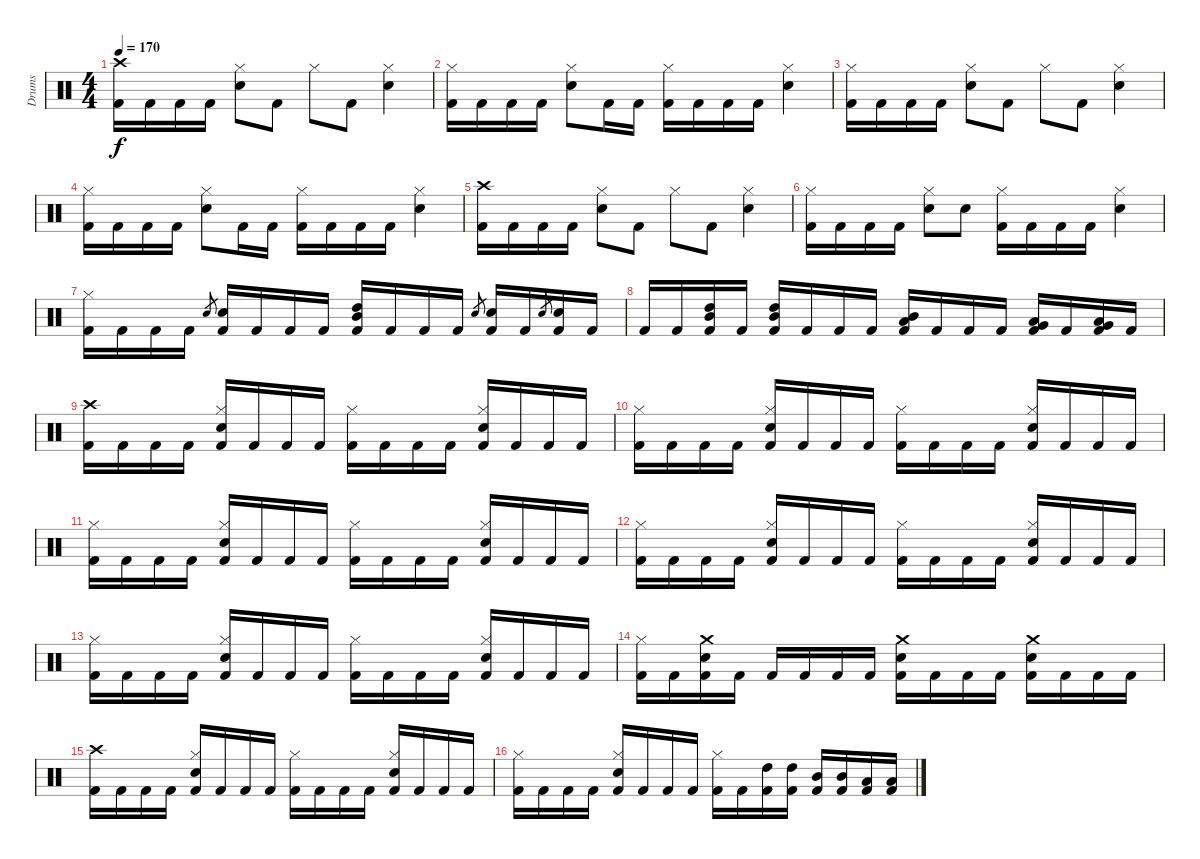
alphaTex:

\track ("Drums" "Drums") {instrument percussion}
\staff {score}
\articulation defaults
\ts (4 4)
\tempo 170
\clef neutral
\ks c
("Crash high (hit)" "Kick (hit) 2").16{dy f} "Kick (hit) 2".16 "Kick (hit) 2".16 "Kick (hit) 2".16 ("Hi-Hat (closed)" "Snare (hit) 2").8 "Kick (hit) 2".8 "Hi-Hat (closed)".8 "Kick (hit) 2".8 ("Hi-Hat (closed)" "Snare (hit) 2").4 |
("Hi-Hat (closed)" "Kick (hit) 2").16 "Kick (hit) 2".16 "Kick (hit) 2".16 "Kick (hit) 2".16 ("Hi-Hat (closed)" "Snare (hit) 2").8 "Kick (hit) 2".16 "Kick (hit) 2".16 ("Hi-Hat (closed)" "Kick (hit) 2").16 "Kick (hit) 2".16 "Kick (hit) 2".16 "Kick (hit) 2".16 ("Hi-Hat (closed)" "Snare (hit) 2").4 |
("Hi-Hat (closed)" "Kick (hit) 2").16 "Kick (hit) 2".16 "Kick (hit) 2".16 "Kick (hit) 2".16 ("Hi-Hat (closed)" "Snare (hit) 2").8 "Kick (hit) 2".8 "Hi-Hat (closed)".8 "Kick (hit) 2".8 ("Hi-Hat (closed)" "Snare (hit) 2").4 |
("Hi-Hat (closed)" "Kick (hit) 2").16 "Kick (hit) 2".16 "Kick (hit) 2".16 "Kick (hit) 2".16 ("Hi-Hat (closed)" "Snare (hit) 2").8 "Kick (hit) 2".16 "Kick (hit) 2".16 ("Hi-Hat (closed)" "Kick (hit) 2").16 "Kick (hit) 2".16 "Kick (hit) 2".16 "Kick (hit) 2".16 ("Hi-Hat (closed)" "Snare (hit) 2").4 |
("Crash high (hit)" "Kick (hit) 2").16 "Kick (hit) 2".16 "Kick (hit) 2".16 "Kick (hit) 2".16 ("Hi-Hat (closed)" "Snare (hit) 2").8 "Kick (hit) 2".8 "Hi-Hat (closed)".8 "Kick (hit) 2".8 ("Hi-Hat (closed)" "Snare (hit) 2").4 |
("Hi-Hat (closed)" "Kick (hit) 2").16 "Kick (hit) 2".16 "Kick (hit) 2".16 "Kick (hit) 2".16 ("Hi-Hat (closed)" "Snare (hit) 2").8 "Snare (hit) 2".8 ("Hi-Hat (closed)" "Kick (hit) 2").16 "Kick (hit) 2".16 "Kick (hit) 2".16 "Kick (hit) 2".16 ("Hi-Hat (closed)" "Snare (hit) 2").4 |
("Hi-Hat (closed)" "Kick (hit) 2").16 "Kick (hit) 2".16 "Kick (hit) 2".16 "Kick (hit) 2".16 "Snare (hit) 2".8{gr} ("Snare (hit) 2" "Kick (hit) 2").16 "Kick (hit) 2".16 "Kick (hit) 2".16 "Kick (hit) 2".16 ("High Tom (hit)" "Mid Tom (hit)" "Kick (hit) 2").16 "Kick (hit) 2".16 "Kick (hit) 2".16 "Kick (hit) 2".16 "Snare (hit) 2".8{gr} ("Snare (hit) 2" "Kick (hit) 2").16 "Kick (hit) 2".16 "Snare (hit) 2".8{gr} ("Snare (hit) 2" "Kick (hit) 2").16 "Kick (hit) 2".16 |
"Kick (hit) 2".16 "Kick (hit) 2".16 ("High Tom (hit)" "Mid Tom (hit)" "Kick (hit) 2").16 "Kick (hit) 2".16 ("High Tom (hit)" "Mid Tom (hit)" "Kick (hit) 2").16 "Kick (hit) 2".16 "Kick (hit) 2".16 "Kick (hit) 2".16 ("Mid Tom (hit)" "Low Tom (hit)" "Kick (hit) 2").16 "Kick (hit) 2".16 "Kick (hit) 2".16 "Kick (hit) 2".16 ("Low Tom (hit)" "Very Low Tom (hit)" "Kick (hit) 2").16 "Kick (hit) 2".16 ("Low Tom (hit)" "Very Low Tom (hit)" "Kick (hit) 2").16 "Kick (hit) 2".16 |
("Crash high (hit)" "Kick (hit) 2").16 "Kick (hit) 2".16 "Kick (hit) 2".16 "Kick (hit) 2".16 ("Hi-Hat (closed)" "Snare (hit) 2" "Kick (hit) 2").16 "Kick (hit) 2".16 "Kick (hit) 2".16 "Kick (hit) 2".16 ("Hi-Hat (closed)" "Kick (hit) 2").16 "Kick (hit) 2".16 "Kick (hit) 2".16 "Kick (hit) 2".16 ("Hi-Hat (closed)" "Snare (hit) 2" "Kick (hit) 2").16 "Kick (hit) 2".16 "Kick (hit) 2".16 "Kick (hit) 2".16 |
("Hi-Hat (closed)" "Kick (hit) 2").16 "Kick (hit) 2".16 "Kick (hit) 2".16 "Kick (hit) 2".16 ("Hi-Hat (closed)" "Snare (hit) 2" "Kick (hit) 2").16 "Kick (hit) 2".16 "Kick (hit) 2".16 "Kick (hit) 2".16 ("Hi-Hat (closed)" "Kick (hit) 2").16 "Kick (hit) 2".16 "Kick (hit) 2".16 "Kick (hit) 2".16 ("Hi-Hat (closed)" "Snare (hit) 2" "Kick (hit) 2").16 "Kick (hit) 2".16 "Kick (hit) 2".16 "Kick (hit) 2".16 |
("Hi-Hat (closed)" "Kick (hit) 2").16 "Kick (hit) 2".16 "Kick (hit) 2".16 "Kick (hit) 2".16 ("Hi-Hat (closed)" "Snare (hit) 2" "Kick (hit) 2").16 "Kick (hit) 2".16 "Kick (hit) 2".16 "Kick (hit) 2".16 ("Hi-Hat (closed)" "Kick (hit) 2").16 "Kick (hit) 2".16 "Kick (hit) 2".16 "Kick (hit) 2".16 ("Hi-Hat (closed)" "Snare (hit) 2" "Kick (hit) 2").16 "Kick (hit) 2".16 "Kick (hit) 2".16 "Kick (hit) 2".16 |
("Hi-Hat (closed)" "Kick (hit) 2").16 "Kick (hit) 2".16 "Kick (hit) 2".16 "Kick (hit) 2".16 ("Hi-Hat (closed)" "Snare (hit) 2" "Kick (hit) 2").16 "Kick (hit) 2".16 "Kick (hit) 2".16 "Kick (hit) 2".16 ("Hi-Hat (closed)" "Kick (hit) 2").16 "Kick (hit) 2".16 "Kick (hit) 2".16 "Kick (hit) 2".16 ("Hi-Hat (closed)" "Snare (hit) 2" "Kick (hit) 2").16 "Kick (hit) 2".16 "Kick (hit) 2".16 "Kick (hit) 2".16 |
("Hi-Hat (closed)" "Kick (hit) 2").16 "Kick (hit) 2".16 "Kick (hit) 2".16 "Kick (hit) 2".16 ("Hi-Hat (closed)" "Snare (hit) 2" "Kick (hit) 2").16 "Kick (hit) 2".16 "Kick (hit) 2".16 "Kick (hit) 2".16 ("Hi-Hat (closed)" "Kick (hit) 2").16 "Kick (hit) 2".16 "Kick (hit) 2".16 "Kick (hit) 2".16 ("Hi-Hat (closed)" "Snare (hit) 2" "Kick (hit) 2").16 "Kick (hit) 2".16 "Kick (hit) 2".16 "Kick (hit) 2".16 |
("Hi-Hat (closed)" "Kick (hit) 2").16 "Kick (hit) 2".16 ("Crash medium (hit)" "Snare (hit) 2" "Kick (hit) 2").16 "Kick (hit) 2".16 "Kick (hit) 2".16 "Kick (hit) 2".16 "Kick (hit) 2".16 "Kick (hit) 2".16 ("Crash medium (hit)" "Snare (hit) 2" "Kick (hit) 2").16 "Kick (hit) 2".16 "Kick (hit) 2".16 "Kick (hit) 2".16 ("Crash medium (hit)" "Snare (hit) 2" "Kick (hit) 2").16 "Kick (hit) 2".16 "Kick (hit) 2".16 "Kick (hit) 2".16 |
("Crash high (hit)" "Kick (hit) 2").16 "Kick (hit) 2".16 "Kick (hit) 2".16 "Kick (hit) 2".16 ("Hi-Hat (closed)" "Snare (hit) 2" "Kick (hit) 2").16 "Kick (hit) 2".16 "Kick (hit) 2".16 "Kick (hit) 2".16 ("Hi-Hat (closed)" "Kick (hit) 2").16 "Kick (hit) 2".16 "Kick (hit) 2".16 "Kick (hit) 2".16 ("Hi-Hat (closed)" "Snare (hit) 2" "Kick (hit) 2").16 "Kick (hit) 2".16 "Kick (hit) 2".16 "Kick (hit) 2".16 |
("Hi-Hat (closed)" "Kick (hit) 2").16 "Kick (hit) 2".16 "Kick (hit) 2".16 "Kick (hit) 2".16 ("Hi-Hat (closed)" "Snare (hit) 2" "Kick (hit) 2").16 "Kick (hit) 2".16 "Kick (hit) 2".16 "Kick (hit) 2".16 ("Hi-Hat (closed)" "Kick (hit) 2").16 "Kick (hit) 2".16 ("High Tom (hit)" "Kick (hit) 2").16 ("High Tom (hit)" "Kick (hit) 2").16 ("Mid Tom (hit)" "Kick (hit) 2").16 ("Mid Tom (hit)" "Kick (hit) 2").16 ("Low Tom (hit)" "Kick (hit) 2").16 ("Low Tom (hit)" "Kick (hit) 2").16
